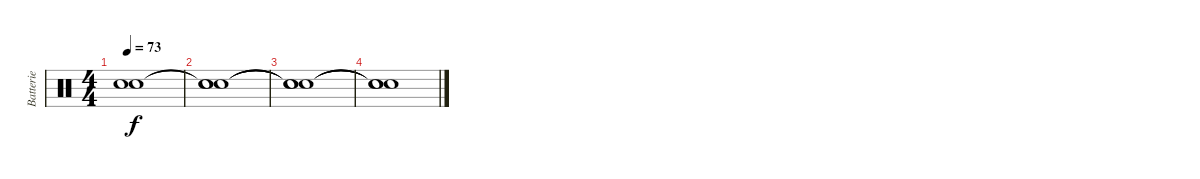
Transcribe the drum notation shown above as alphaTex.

\track ("Batterie" "Batterie") {instrument percussion}
\staff {score}
\articulation defaults
\ts (4 4)
\tempo 73
\clef neutral
\ks c
("Snare (hit)"{t} "Snare (hit)"{t}).1{dy f} |
("Snare (hit)"{t} "Snare (hit)"{t} "Snare (hit)").1 |
("Snare (hit)"{t} "Snare (hit)"{t} "Snare (hit)"{t}).1 |
("Snare (hit)"{t} "Snare (hit)"{t} "Snare (hit)"{t}).1
